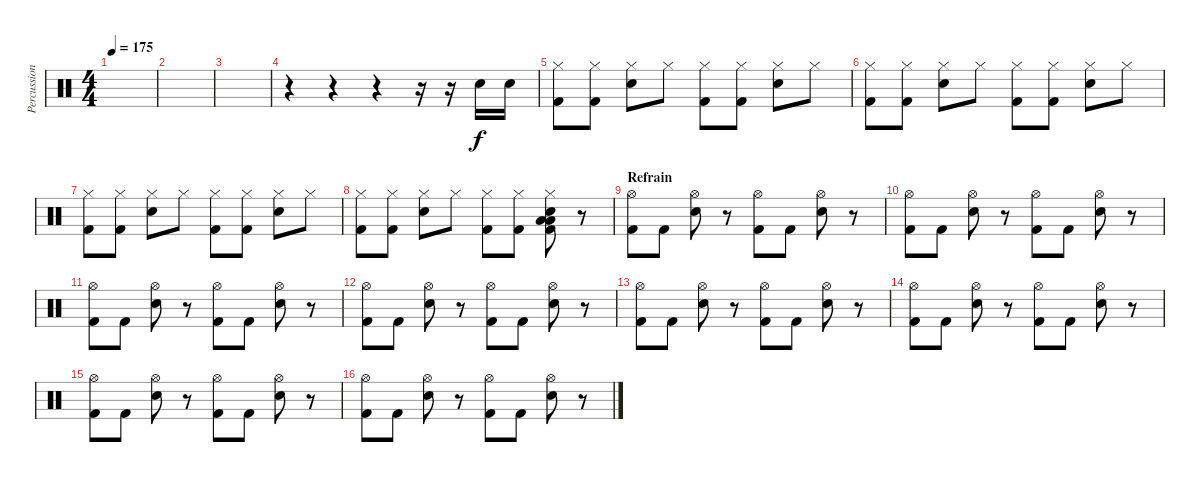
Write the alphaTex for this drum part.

\track ("Percussions" "Percussion") {instrument percussion}
\staff {score}
\articulation defaults
\ts (4 4)
\tempo 175
\clef neutral
\ks c
|
|
|
r.4 r.4 r.4 r.16 r.16 "Snare (hit) 2".16 "Snare (hit) 2".16 |
("Hi-Hat (closed)" "Kick (hit) 2").8 ("Hi-Hat (closed)" "Kick (hit) 2").8 ("Hi-Hat (closed)" "Snare (hit) 2").8 "Hi-Hat (closed)".8 ("Hi-Hat (closed)" "Kick (hit) 2").8 ("Hi-Hat (closed)" "Kick (hit) 2").8 ("Hi-Hat (closed)" "Snare (hit) 2").8 "Hi-Hat (closed)".8 |
("Hi-Hat (closed)" "Kick (hit) 2").8 ("Hi-Hat (closed)" "Kick (hit) 2").8 ("Hi-Hat (closed)" "Snare (hit) 2").8 "Hi-Hat (closed)".8 ("Hi-Hat (closed)" "Kick (hit) 2").8 ("Hi-Hat (closed)" "Kick (hit) 2").8 ("Hi-Hat (closed)" "Snare (hit) 2").8 "Hi-Hat (closed)".8 |
("Hi-Hat (closed)" "Kick (hit) 2").8 ("Hi-Hat (closed)" "Kick (hit) 2").8 ("Hi-Hat (closed)" "Snare (hit) 2").8 "Hi-Hat (closed)".8 ("Hi-Hat (closed)" "Kick (hit) 2").8 ("Hi-Hat (closed)" "Kick (hit) 2").8 ("Hi-Hat (closed)" "Snare (hit) 2").8 "Hi-Hat (closed)".8 |
("Hi-Hat (closed)" "Kick (hit) 2").8 ("Hi-Hat (closed)" "Kick (hit) 2").8 ("Hi-Hat (closed)" "Snare (hit) 2").8 "Hi-Hat (closed)".8 ("Hi-Hat (closed)" "Kick (hit) 2").8 ("Hi-Hat (closed)" "Kick (hit) 2").8 ("Hi-Hat (closed)" "Snare (hit) 2" "Low Floor Tom (hit)" "Low Tom (hit)" "Kick (hit) 2").8 r.8 |
\section ("" "Refrain")
("Hi-Hat (open)" "Kick (hit) 2").8 "Kick (hit) 2".8 ("Hi-Hat (open)" "Snare (hit) 2").8 r.8 ("Hi-Hat (open)" "Kick (hit) 2").8 "Kick (hit) 2".8 ("Hi-Hat (open)" "Snare (hit) 2").8 r.8 |
("Hi-Hat (open)" "Kick (hit) 2").8 "Kick (hit) 2".8 ("Hi-Hat (open)" "Snare (hit) 2").8 r.8 ("Hi-Hat (open)" "Kick (hit) 2").8 "Kick (hit) 2".8 ("Hi-Hat (open)" "Snare (hit) 2").8 r.8 |
("Hi-Hat (open)" "Kick (hit) 2").8 "Kick (hit) 2".8 ("Hi-Hat (open)" "Snare (hit) 2").8 r.8 ("Hi-Hat (open)" "Kick (hit) 2").8 "Kick (hit) 2".8 ("Hi-Hat (open)" "Snare (hit) 2").8 r.8 |
("Hi-Hat (open)" "Kick (hit) 2").8 "Kick (hit) 2".8 ("Hi-Hat (open)" "Snare (hit) 2").8 r.8 ("Hi-Hat (open)" "Kick (hit) 2").8 "Kick (hit) 2".8 ("Hi-Hat (open)" "Snare (hit) 2").8 r.8 |
("Hi-Hat (open)" "Kick (hit) 2").8 "Kick (hit) 2".8 ("Hi-Hat (open)" "Snare (hit) 2").8 r.8 ("Hi-Hat (open)" "Kick (hit) 2").8 "Kick (hit) 2".8 ("Hi-Hat (open)" "Snare (hit) 2").8 r.8 |
("Hi-Hat (open)" "Kick (hit) 2").8 "Kick (hit) 2".8 ("Hi-Hat (open)" "Snare (hit) 2").8 r.8 ("Hi-Hat (open)" "Kick (hit) 2").8 "Kick (hit) 2".8 ("Hi-Hat (open)" "Snare (hit) 2").8 r.8 |
("Hi-Hat (open)" "Kick (hit) 2").8 "Kick (hit) 2".8 ("Hi-Hat (open)" "Snare (hit) 2").8 r.8 ("Hi-Hat (open)" "Kick (hit) 2").8 "Kick (hit) 2".8 ("Hi-Hat (open)" "Snare (hit) 2").8 r.8 |
("Hi-Hat (open)" "Kick (hit) 2").8 "Kick (hit) 2".8 ("Hi-Hat (open)" "Snare (hit) 2").8 r.8 ("Hi-Hat (open)" "Kick (hit) 2").8 "Kick (hit) 2".8 ("Hi-Hat (open)" "Snare (hit) 2").8 r.8
